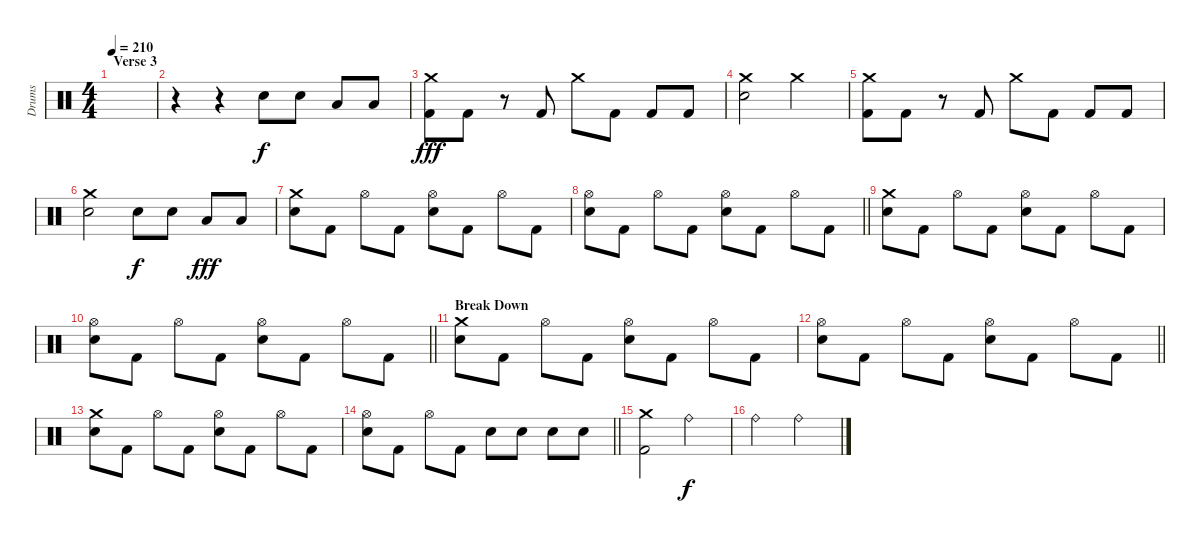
\track ("Drums" "Drums") {instrument percussion}
\staff {score}
\articulation defaults
\ts (4 4)
\section ("" "Verse 3")
\tempo 210
\clef neutral
\ks c
|
r.4 r.4 "Electric Snare (hit)".8{dy f} "Electric Snare (hit)".8 "Low Tom (hit)".8 "Low Tom (hit)".8 |
("Crash medium (hit)" "Kick (hit) 2").8{dy fff} "Kick (hit) 2".8 r.8 "Kick (hit) 2".8 "Crash medium (hit)".8 "Kick (hit) 2".8 "Kick (hit) 2".8 "Kick (hit) 2".8 |
("Crash medium (hit)" "Electric Snare (hit)").2 "Crash medium (hit)".2 |
("Crash medium (hit)" "Kick (hit) 2").8 "Kick (hit) 2".8 r.8 "Kick (hit) 2".8 "Crash medium (hit)".8 "Kick (hit) 2".8 "Kick (hit) 2".8 "Kick (hit) 2".8 |
("Crash medium (hit)" "Electric Snare (hit)").2 "Electric Snare (hit)".8{dy f} "Electric Snare (hit)".8 "Low Tom (hit)".8{dy fff} "Low Tom (hit)".8 |
("Crash medium (hit)" "Electric Snare (hit)").8 "Kick (hit) 2".8 "Hi-Hat (open)".8 "Kick (hit) 2".8 ("Hi-Hat (open)" "Electric Snare (hit)").8 "Kick (hit) 2".8 "Hi-Hat (open)".8 "Kick (hit) 2".8 |
\barLineRight lightlight
("Hi-Hat (open)" "Electric Snare (hit)").8 "Kick (hit) 2".8 "Hi-Hat (open)".8 "Kick (hit) 2".8 ("Hi-Hat (open)" "Electric Snare (hit)").8 "Kick (hit) 2".8 "Hi-Hat (open)".8 "Kick (hit) 2".8 |
("Crash medium (hit)" "Electric Snare (hit)").8 "Kick (hit) 2".8 "Hi-Hat (open)".8 "Kick (hit) 2".8 ("Hi-Hat (open)" "Electric Snare (hit)").8 "Kick (hit) 2".8 "Hi-Hat (open)".8 "Kick (hit) 2".8 |
\barLineRight lightlight
("Hi-Hat (open)" "Electric Snare (hit)").8 "Kick (hit) 2".8 "Hi-Hat (open)".8 "Kick (hit) 2".8 ("Hi-Hat (open)" "Electric Snare (hit)").8 "Kick (hit) 2".8 "Hi-Hat (open)".8 "Kick (hit) 2".8 |
\section ("" "Break Down")
("Crash medium (hit)" "Electric Snare (hit)").8 "Kick (hit) 2".8 "Hi-Hat (open)".8 "Kick (hit) 2".8 ("Hi-Hat (open)" "Electric Snare (hit)").8 "Kick (hit) 2".8 "Hi-Hat (open)".8 "Kick (hit) 2".8 |
\barLineRight lightlight
("Hi-Hat (open)" "Electric Snare (hit)").8 "Kick (hit) 2".8 "Hi-Hat (open)".8 "Kick (hit) 2".8 ("Hi-Hat (open)" "Electric Snare (hit)").8 "Kick (hit) 2".8 "Hi-Hat (open)".8 "Kick (hit) 2".8 |
("Crash medium (hit)" "Electric Snare (hit)").8 "Kick (hit) 2".8 "Hi-Hat (open)".8 "Kick (hit) 2".8 ("Hi-Hat (open)" "Electric Snare (hit)").8 "Kick (hit) 2".8 "Hi-Hat (open)".8 "Kick (hit) 2".8 |
\barLineRight lightlight
("Hi-Hat (open)" "Electric Snare (hit)").8 "Kick (hit) 2".8 "Hi-Hat (open)".8 "Kick (hit) 2".8 "Electric Snare (hit)".8 "Electric Snare (hit)".8 "Electric Snare (hit)".8 "Electric Snare (hit)".8 |
("Crash medium (hit)" "Kick (hit) 2").2 "Ride (bell)".2{dy f} |
"Ride (bell)".2 "Ride (bell)".2
